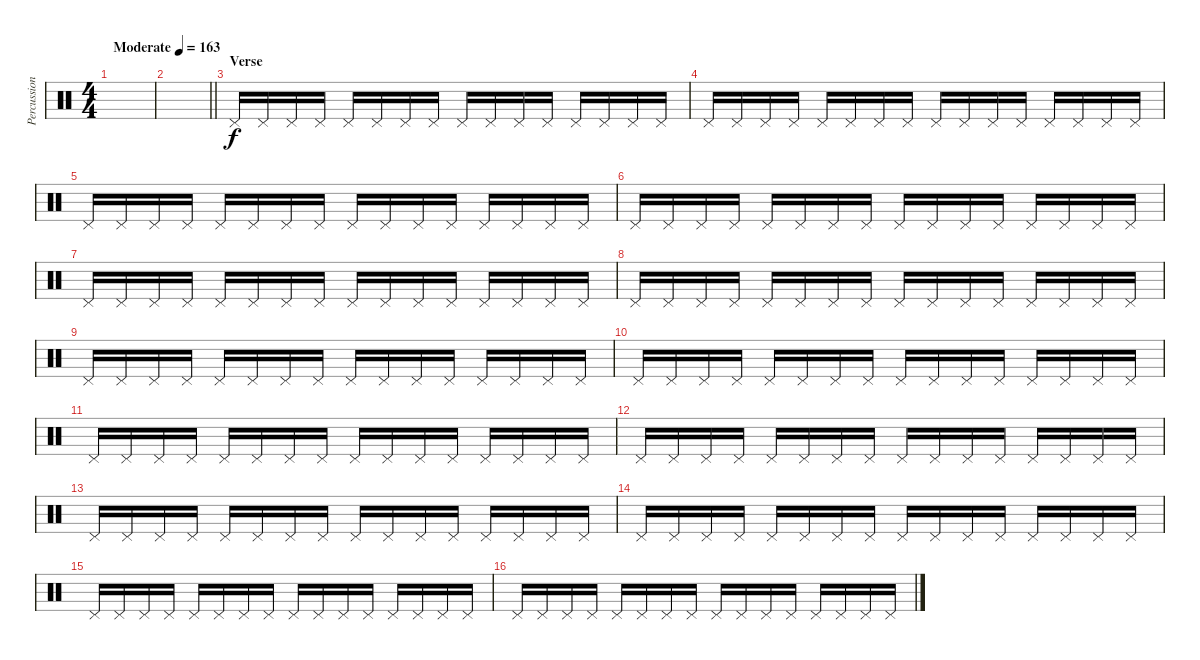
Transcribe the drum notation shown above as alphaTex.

\track ("Percussion" "Percussion") {instrument percussion}
\staff {score}
\articulation defaults
\ts (4 4)
\tempo (163 "Moderate")
\clef neutral
\ks c
|
\barLineRight lightlight
|
\section ("" "Verse")
"Pedal Hi-Hat (hit)".16 "Pedal Hi-Hat (hit)".16 "Pedal Hi-Hat (hit)".16 "Pedal Hi-Hat (hit)".16 "Pedal Hi-Hat (hit)".16 "Pedal Hi-Hat (hit)".16 "Pedal Hi-Hat (hit)".16 "Pedal Hi-Hat (hit)".16 "Pedal Hi-Hat (hit)".16 "Pedal Hi-Hat (hit)".16 "Pedal Hi-Hat (hit)".16 "Pedal Hi-Hat (hit)".16 "Pedal Hi-Hat (hit)".16 "Pedal Hi-Hat (hit)".16 "Pedal Hi-Hat (hit)".16 "Pedal Hi-Hat (hit)".16 |
"Pedal Hi-Hat (hit)".16 "Pedal Hi-Hat (hit)".16 "Pedal Hi-Hat (hit)".16 "Pedal Hi-Hat (hit)".16 "Pedal Hi-Hat (hit)".16 "Pedal Hi-Hat (hit)".16 "Pedal Hi-Hat (hit)".16 "Pedal Hi-Hat (hit)".16 "Pedal Hi-Hat (hit)".16 "Pedal Hi-Hat (hit)".16 "Pedal Hi-Hat (hit)".16 "Pedal Hi-Hat (hit)".16 "Pedal Hi-Hat (hit)".16 "Pedal Hi-Hat (hit)".16 "Pedal Hi-Hat (hit)".16 "Pedal Hi-Hat (hit)".16 |
"Pedal Hi-Hat (hit)".16 "Pedal Hi-Hat (hit)".16 "Pedal Hi-Hat (hit)".16 "Pedal Hi-Hat (hit)".16 "Pedal Hi-Hat (hit)".16 "Pedal Hi-Hat (hit)".16 "Pedal Hi-Hat (hit)".16 "Pedal Hi-Hat (hit)".16 "Pedal Hi-Hat (hit)".16 "Pedal Hi-Hat (hit)".16 "Pedal Hi-Hat (hit)".16 "Pedal Hi-Hat (hit)".16 "Pedal Hi-Hat (hit)".16 "Pedal Hi-Hat (hit)".16 "Pedal Hi-Hat (hit)".16 "Pedal Hi-Hat (hit)".16 |
"Pedal Hi-Hat (hit)".16 "Pedal Hi-Hat (hit)".16 "Pedal Hi-Hat (hit)".16 "Pedal Hi-Hat (hit)".16 "Pedal Hi-Hat (hit)".16 "Pedal Hi-Hat (hit)".16 "Pedal Hi-Hat (hit)".16 "Pedal Hi-Hat (hit)".16 "Pedal Hi-Hat (hit)".16 "Pedal Hi-Hat (hit)".16 "Pedal Hi-Hat (hit)".16 "Pedal Hi-Hat (hit)".16 "Pedal Hi-Hat (hit)".16 "Pedal Hi-Hat (hit)".16 "Pedal Hi-Hat (hit)".16 "Pedal Hi-Hat (hit)".16 |
"Pedal Hi-Hat (hit)".16 "Pedal Hi-Hat (hit)".16 "Pedal Hi-Hat (hit)".16 "Pedal Hi-Hat (hit)".16 "Pedal Hi-Hat (hit)".16 "Pedal Hi-Hat (hit)".16 "Pedal Hi-Hat (hit)".16 "Pedal Hi-Hat (hit)".16 "Pedal Hi-Hat (hit)".16 "Pedal Hi-Hat (hit)".16 "Pedal Hi-Hat (hit)".16 "Pedal Hi-Hat (hit)".16 "Pedal Hi-Hat (hit)".16 "Pedal Hi-Hat (hit)".16 "Pedal Hi-Hat (hit)".16 "Pedal Hi-Hat (hit)".16 |
"Pedal Hi-Hat (hit)".16 "Pedal Hi-Hat (hit)".16 "Pedal Hi-Hat (hit)".16 "Pedal Hi-Hat (hit)".16 "Pedal Hi-Hat (hit)".16 "Pedal Hi-Hat (hit)".16 "Pedal Hi-Hat (hit)".16 "Pedal Hi-Hat (hit)".16 "Pedal Hi-Hat (hit)".16 "Pedal Hi-Hat (hit)".16 "Pedal Hi-Hat (hit)".16 "Pedal Hi-Hat (hit)".16 "Pedal Hi-Hat (hit)".16 "Pedal Hi-Hat (hit)".16 "Pedal Hi-Hat (hit)".16 "Pedal Hi-Hat (hit)".16 |
"Pedal Hi-Hat (hit)".16 "Pedal Hi-Hat (hit)".16 "Pedal Hi-Hat (hit)".16 "Pedal Hi-Hat (hit)".16 "Pedal Hi-Hat (hit)".16 "Pedal Hi-Hat (hit)".16 "Pedal Hi-Hat (hit)".16 "Pedal Hi-Hat (hit)".16 "Pedal Hi-Hat (hit)".16 "Pedal Hi-Hat (hit)".16 "Pedal Hi-Hat (hit)".16 "Pedal Hi-Hat (hit)".16 "Pedal Hi-Hat (hit)".16 "Pedal Hi-Hat (hit)".16 "Pedal Hi-Hat (hit)".16 "Pedal Hi-Hat (hit)".16 |
"Pedal Hi-Hat (hit)".16 "Pedal Hi-Hat (hit)".16 "Pedal Hi-Hat (hit)".16 "Pedal Hi-Hat (hit)".16 "Pedal Hi-Hat (hit)".16 "Pedal Hi-Hat (hit)".16 "Pedal Hi-Hat (hit)".16 "Pedal Hi-Hat (hit)".16 "Pedal Hi-Hat (hit)".16 "Pedal Hi-Hat (hit)".16 "Pedal Hi-Hat (hit)".16 "Pedal Hi-Hat (hit)".16 "Pedal Hi-Hat (hit)".16 "Pedal Hi-Hat (hit)".16 "Pedal Hi-Hat (hit)".16 "Pedal Hi-Hat (hit)".16 |
"Pedal Hi-Hat (hit)".16 "Pedal Hi-Hat (hit)".16 "Pedal Hi-Hat (hit)".16 "Pedal Hi-Hat (hit)".16 "Pedal Hi-Hat (hit)".16 "Pedal Hi-Hat (hit)".16 "Pedal Hi-Hat (hit)".16 "Pedal Hi-Hat (hit)".16 "Pedal Hi-Hat (hit)".16 "Pedal Hi-Hat (hit)".16 "Pedal Hi-Hat (hit)".16 "Pedal Hi-Hat (hit)".16 "Pedal Hi-Hat (hit)".16 "Pedal Hi-Hat (hit)".16 "Pedal Hi-Hat (hit)".16 "Pedal Hi-Hat (hit)".16 |
"Pedal Hi-Hat (hit)".16 "Pedal Hi-Hat (hit)".16 "Pedal Hi-Hat (hit)".16 "Pedal Hi-Hat (hit)".16 "Pedal Hi-Hat (hit)".16 "Pedal Hi-Hat (hit)".16 "Pedal Hi-Hat (hit)".16 "Pedal Hi-Hat (hit)".16 "Pedal Hi-Hat (hit)".16 "Pedal Hi-Hat (hit)".16 "Pedal Hi-Hat (hit)".16 "Pedal Hi-Hat (hit)".16 "Pedal Hi-Hat (hit)".16 "Pedal Hi-Hat (hit)".16 "Pedal Hi-Hat (hit)".16 "Pedal Hi-Hat (hit)".16 |
"Pedal Hi-Hat (hit)".16 "Pedal Hi-Hat (hit)".16 "Pedal Hi-Hat (hit)".16 "Pedal Hi-Hat (hit)".16 "Pedal Hi-Hat (hit)".16 "Pedal Hi-Hat (hit)".16 "Pedal Hi-Hat (hit)".16 "Pedal Hi-Hat (hit)".16 "Pedal Hi-Hat (hit)".16 "Pedal Hi-Hat (hit)".16 "Pedal Hi-Hat (hit)".16 "Pedal Hi-Hat (hit)".16 "Pedal Hi-Hat (hit)".16 "Pedal Hi-Hat (hit)".16 "Pedal Hi-Hat (hit)".16 "Pedal Hi-Hat (hit)".16 |
"Pedal Hi-Hat (hit)".16 "Pedal Hi-Hat (hit)".16 "Pedal Hi-Hat (hit)".16 "Pedal Hi-Hat (hit)".16 "Pedal Hi-Hat (hit)".16 "Pedal Hi-Hat (hit)".16 "Pedal Hi-Hat (hit)".16 "Pedal Hi-Hat (hit)".16 "Pedal Hi-Hat (hit)".16 "Pedal Hi-Hat (hit)".16 "Pedal Hi-Hat (hit)".16 "Pedal Hi-Hat (hit)".16 "Pedal Hi-Hat (hit)".16 "Pedal Hi-Hat (hit)".16 "Pedal Hi-Hat (hit)".16 "Pedal Hi-Hat (hit)".16 |
"Pedal Hi-Hat (hit)".16 "Pedal Hi-Hat (hit)".16 "Pedal Hi-Hat (hit)".16 "Pedal Hi-Hat (hit)".16 "Pedal Hi-Hat (hit)".16 "Pedal Hi-Hat (hit)".16 "Pedal Hi-Hat (hit)".16 "Pedal Hi-Hat (hit)".16 "Pedal Hi-Hat (hit)".16 "Pedal Hi-Hat (hit)".16 "Pedal Hi-Hat (hit)".16 "Pedal Hi-Hat (hit)".16 "Pedal Hi-Hat (hit)".16 "Pedal Hi-Hat (hit)".16 "Pedal Hi-Hat (hit)".16 "Pedal Hi-Hat (hit)".16 |
"Pedal Hi-Hat (hit)".16 "Pedal Hi-Hat (hit)".16 "Pedal Hi-Hat (hit)".16 "Pedal Hi-Hat (hit)".16 "Pedal Hi-Hat (hit)".16 "Pedal Hi-Hat (hit)".16 "Pedal Hi-Hat (hit)".16 "Pedal Hi-Hat (hit)".16 "Pedal Hi-Hat (hit)".16 "Pedal Hi-Hat (hit)".16 "Pedal Hi-Hat (hit)".16 "Pedal Hi-Hat (hit)".16 "Pedal Hi-Hat (hit)".16 "Pedal Hi-Hat (hit)".16 "Pedal Hi-Hat (hit)".16 "Pedal Hi-Hat (hit)".16
